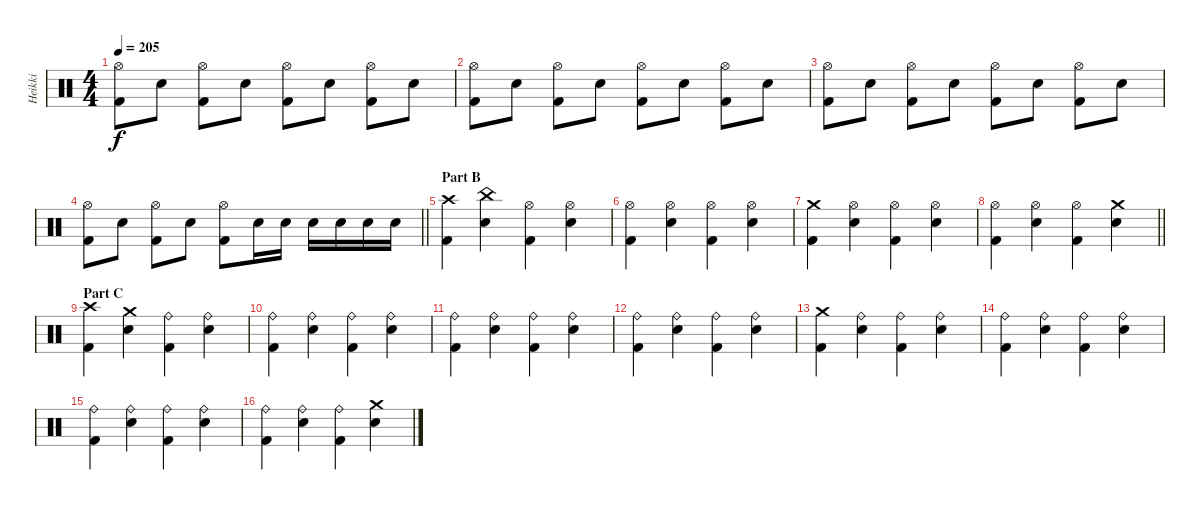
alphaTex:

\track ("Heikki" "Heikki") {instrument percussion}
\staff {score}
\articulation defaults
\ts (4 4)
\tempo 205
\clef neutral
\ks c
("Hi-Hat (open)" "Kick (hit) 2").8{dy f} "Electric Snare (hit)".8 ("Hi-Hat (open)" "Kick (hit) 2").8 "Electric Snare (hit)".8 ("Hi-Hat (open)" "Kick (hit) 2").8 "Electric Snare (hit)".8 ("Hi-Hat (open)" "Kick (hit) 2").8 "Electric Snare (hit)".8 |
("Hi-Hat (open)" "Kick (hit) 2").8 "Electric Snare (hit)".8 ("Hi-Hat (open)" "Kick (hit) 2").8 "Electric Snare (hit)".8 ("Hi-Hat (open)" "Kick (hit) 2").8 "Electric Snare (hit)".8 ("Hi-Hat (open)" "Kick (hit) 2").8 "Electric Snare (hit)".8 |
("Hi-Hat (open)" "Kick (hit) 2").8 "Electric Snare (hit)".8 ("Hi-Hat (open)" "Kick (hit) 2").8 "Electric Snare (hit)".8 ("Hi-Hat (open)" "Kick (hit) 2").8 "Electric Snare (hit)".8 ("Hi-Hat (open)" "Kick (hit) 2").8 "Electric Snare (hit)".8 |
\barLineRight lightlight
("Hi-Hat (open)" "Kick (hit) 2").8 "Electric Snare (hit)".8 ("Hi-Hat (open)" "Kick (hit) 2").8 "Electric Snare (hit)".8 ("Hi-Hat (open)" "Kick (hit) 2").8 "Electric Snare (hit)".16 "Electric Snare (hit)".16 "Electric Snare (hit)".16 "Electric Snare (hit)".16 "Electric Snare (hit)".16 "Electric Snare (hit)".16 |
\section ("" "Part B")
("Crash high (hit)" "Kick (hit) 2").4 ("China (hit)" "Electric Snare (hit)").4 ("Hi-Hat (open)" "Kick (hit) 2").4 ("Hi-Hat (open)" "Electric Snare (hit)").4 |
("Hi-Hat (open)" "Kick (hit) 2").4 ("Hi-Hat (open)" "Electric Snare (hit)").4 ("Hi-Hat (open)" "Kick (hit) 2").4 ("Hi-Hat (open)" "Electric Snare (hit)").4 |
("Crash medium (hit)" "Kick (hit) 2").4 ("Hi-Hat (open)" "Electric Snare (hit)").4 ("Hi-Hat (open)" "Kick (hit) 2").4 ("Hi-Hat (open)" "Electric Snare (hit)").4 |
\barLineRight lightlight
("Hi-Hat (open)" "Kick (hit) 2").4 ("Hi-Hat (open)" "Electric Snare (hit)").4 ("Hi-Hat (open)" "Kick (hit) 2").4 ("Crash medium (hit)" "Electric Snare (hit)").4 |
\section ("" "Part C")
("Crash high (hit)" "Kick (hit) 2").4 ("Crash medium (hit)" "Electric Snare (hit)").4 ("Ride (bell)" "Kick (hit) 2").4 ("Ride (bell)" "Electric Snare (hit)").4 |
("Ride (bell)" "Kick (hit) 2").4 ("Ride (bell)" "Electric Snare (hit)").4 ("Ride (bell)" "Kick (hit) 2").4 ("Ride (bell)" "Electric Snare (hit)").4 |
("Ride (bell)" "Kick (hit) 2").4 ("Ride (bell)" "Electric Snare (hit)").4 ("Ride (bell)" "Kick (hit) 2").4 ("Ride (bell)" "Electric Snare (hit)").4 |
("Ride (bell)" "Kick (hit) 2").4 ("Ride (bell)" "Electric Snare (hit)").4 ("Ride (bell)" "Kick (hit) 2").4 ("Ride (bell)" "Electric Snare (hit)").4 |
("Crash medium (hit)" "Kick (hit) 2").4 ("Ride (bell)" "Electric Snare (hit)").4 ("Ride (bell)" "Kick (hit) 2").4 ("Ride (bell)" "Electric Snare (hit)").4 |
("Ride (bell)" "Kick (hit) 2").4 ("Ride (bell)" "Electric Snare (hit)").4 ("Ride (bell)" "Kick (hit) 2").4 ("Ride (bell)" "Electric Snare (hit)").4 |
("Ride (bell)" "Kick (hit) 2").4 ("Ride (bell)" "Electric Snare (hit)").4 ("Ride (bell)" "Kick (hit) 2").4 ("Ride (bell)" "Electric Snare (hit)").4 |
("Ride (bell)" "Kick (hit) 2").4 ("Ride (bell)" "Electric Snare (hit)").4 ("Ride (bell)" "Kick (hit) 2").4 ("Crash medium (hit)" "Electric Snare (hit)").4
